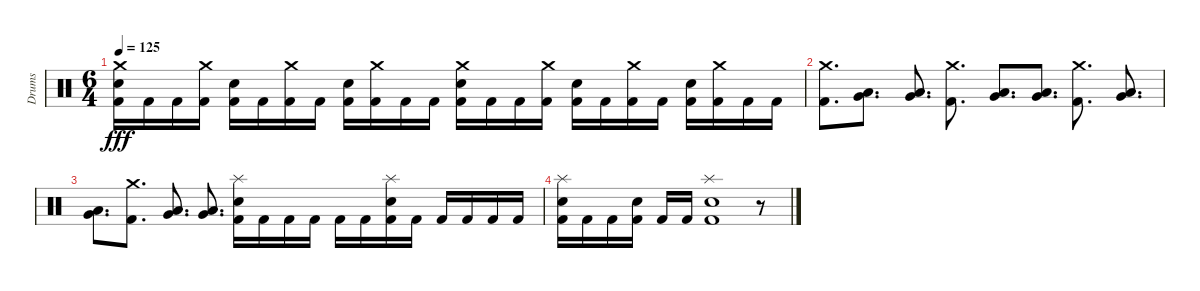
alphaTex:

\track ("Drums" "Drums") {instrument percussion}
\staff {score}
\articulation defaults
\ts (6 4)
\tempo 125
\clef neutral
\ks c
("Crash medium (hit)" "Electric Snare (hit)" "Kick (hit) 2").16{dy fff} "Kick (hit) 2".16 "Kick (hit) 2".16 ("Crash medium (hit)" "Kick (hit) 2").16 ("Electric Snare (hit)" "Kick (hit) 2").16 "Kick (hit) 2".16 ("Crash medium (hit)" "Kick (hit) 2").16 "Kick (hit) 2".16 ("Electric Snare (hit)" "Kick (hit) 2").16 ("Crash medium (hit)" "Kick (hit) 2").16 "Kick (hit) 2".16 "Kick (hit) 2".16 ("Crash medium (hit)" "Electric Snare (hit)" "Kick (hit) 2").16 "Kick (hit) 2".16 "Kick (hit) 2".16 ("Crash medium (hit)" "Kick (hit) 2").16 ("Electric Snare (hit)" "Kick (hit) 2").16 "Kick (hit) 2".16 ("Crash medium (hit)" "Kick (hit) 2").16 "Kick (hit) 2".16 ("Electric Snare (hit)" "Kick (hit) 2").16 ("Crash medium (hit)" "Kick (hit) 2").16 "Kick (hit) 2".16 "Kick (hit) 2".16 |
("Crash medium (hit)" "Kick (hit) 2").8{d} ("Very Low Tom (hit)" "Low Floor Tom (hit)").8{d} ("Very Low Tom (hit)" "Low Floor Tom (hit)").8{d} ("Crash medium (hit)" "Kick (hit) 2").8{d} ("Very Low Tom (hit)" "Low Floor Tom (hit)").8{d} ("Very Low Tom (hit)" "Low Floor Tom (hit)").8{d} ("Crash medium (hit)" "Kick (hit) 2").8{d} ("Very Low Tom (hit)" "Low Floor Tom (hit)").8{d} |
("Very Low Tom (hit)" "Low Floor Tom (hit)").8{d} ("Crash medium (hit)" "Kick (hit) 2").8{d} ("Very Low Tom (hit)" "Low Floor Tom (hit)").8{d} ("Very Low Tom (hit)" "Low Floor Tom (hit)").8{d} ("Splash (hit)" "Electric Snare (hit)" "Kick (hit) 2").16 "Kick (hit) 2".16 "Kick (hit) 2".16 "Kick (hit) 2".16 "Kick (hit) 2".16 "Kick (hit) 2".16 ("Splash (hit)" "Electric Snare (hit)" "Kick (hit) 2").16 "Kick (hit) 2".16 "Kick (hit) 2".16 "Kick (hit) 2".16 "Kick (hit) 2".16 "Kick (hit) 2".16 |
("Splash (hit)" "Electric Snare (hit)" "Kick (hit) 2").16 "Kick (hit) 2".16 "Kick (hit) 2".16 ("Electric Snare (hit)" "Kick (hit) 2").16 "Kick (hit) 2".16 "Kick (hit) 2".16 ("Splash (hit)" "Electric Snare (hit)" "Kick (hit) 2").1 r.8
